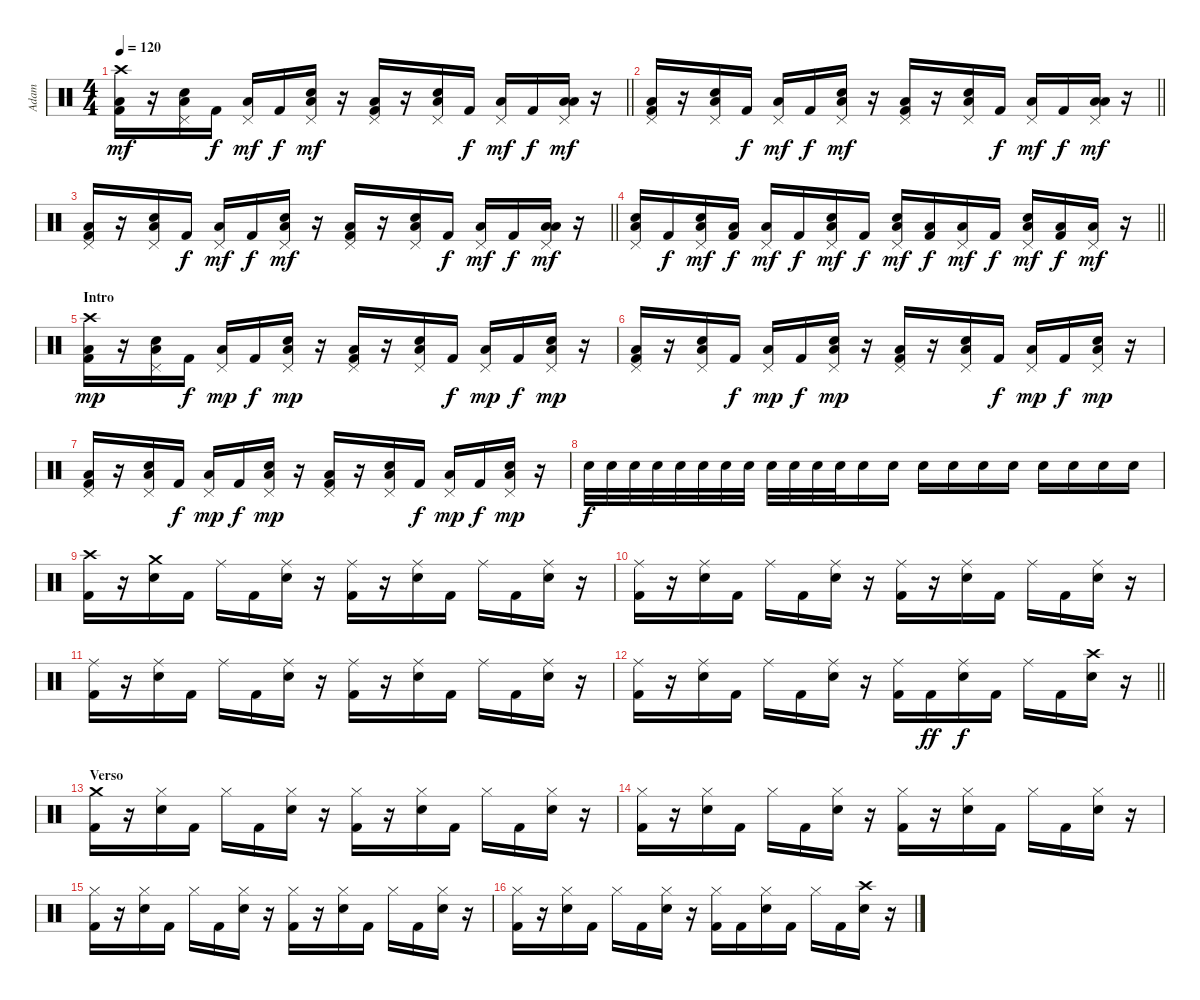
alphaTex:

\track ("Adam" "Adam") {instrument percussion}
\staff {score}
\articulation defaults
\ts (4 4)
\tempo 120
\clef neutral
\barLineRight lightlight
\ks c
("Crash high (hit)" "Low Floor Tom (hit)" "Kick (hit) 2").16{dy mf} r.16 ("Pedal Hi-Hat (hit)" "Low Floor Tom (hit)" "Snare (hit) 2").16 "Kick (hit) 2".16{dy f} ("Pedal Hi-Hat (hit)" "Low Floor Tom (hit)").16{dy mf} "Kick (hit) 2".16{dy f} ("Pedal Hi-Hat (hit)" "Low Floor Tom (hit)" "Snare (hit) 2").16{dy mf} r.16 ("Pedal Hi-Hat (hit)" "Low Floor Tom (hit)" "Kick (hit) 2").16 r.16 ("Pedal Hi-Hat (hit)" "Low Floor Tom (hit)" "Snare (hit) 2").16 "Kick (hit) 2".16{dy f} ("Pedal Hi-Hat (hit)" "Low Floor Tom (hit)").16{dy mf} "Kick (hit) 2".16{dy f} ("Pedal Hi-Hat (hit)" "Low Floor Tom (hit)" "Low Tom (hit)").16{dy mf} r.16 |
\barLineRight lightlight
("Pedal Hi-Hat (hit)" "Low Floor Tom (hit)" "Kick (hit) 2").16 r.16 ("Pedal Hi-Hat (hit)" "Low Floor Tom (hit)" "Snare (hit) 2").16 "Kick (hit) 2".16{dy f} ("Pedal Hi-Hat (hit)" "Low Floor Tom (hit)").16{dy mf} "Kick (hit) 2".16{dy f} ("Pedal Hi-Hat (hit)" "Low Floor Tom (hit)" "Snare (hit) 2").16{dy mf} r.16 ("Pedal Hi-Hat (hit)" "Low Floor Tom (hit)" "Kick (hit) 2").16 r.16 ("Pedal Hi-Hat (hit)" "Low Floor Tom (hit)" "Snare (hit) 2").16 "Kick (hit) 2".16{dy f} ("Pedal Hi-Hat (hit)" "Low Floor Tom (hit)").16{dy mf} "Kick (hit) 2".16{dy f} ("Pedal Hi-Hat (hit)" "Low Floor Tom (hit)" "Low Tom (hit)").16{dy mf} r.16 |
\barLineRight lightlight
("Pedal Hi-Hat (hit)" "Low Floor Tom (hit)" "Kick (hit) 2").16 r.16 ("Pedal Hi-Hat (hit)" "Low Floor Tom (hit)" "Snare (hit) 2").16 "Kick (hit) 2".16{dy f} ("Pedal Hi-Hat (hit)" "Low Floor Tom (hit)").16{dy mf} "Kick (hit) 2".16{dy f} ("Pedal Hi-Hat (hit)" "Low Floor Tom (hit)" "Snare (hit) 2").16{dy mf} r.16 ("Pedal Hi-Hat (hit)" "Low Floor Tom (hit)" "Kick (hit) 2").16 r.16 ("Pedal Hi-Hat (hit)" "Low Floor Tom (hit)" "Snare (hit) 2").16 "Kick (hit) 2".16{dy f} ("Pedal Hi-Hat (hit)" "Low Floor Tom (hit)").16{dy mf} "Kick (hit) 2".16{dy f} ("Pedal Hi-Hat (hit)" "Low Floor Tom (hit)" "Low Tom (hit)").16{dy mf} r.16 |
\barLineRight lightlight
("Pedal Hi-Hat (hit)" "Low Floor Tom (hit)" "Snare (hit) 2").16 "Kick (hit) 2".16{dy f} ("Pedal Hi-Hat (hit)" "Low Floor Tom (hit)" "Snare (hit) 2").16{dy mf} ("Low Tom (hit)" "Kick (hit) 2").16{dy f} ("Pedal Hi-Hat (hit)" "Low Tom (hit)").16{dy mf} "Kick (hit) 2".16{dy f} ("Pedal Hi-Hat (hit)" "Low Floor Tom (hit)" "Snare (hit) 2").16{dy mf} "Kick (hit) 2".16{dy f} ("Pedal Hi-Hat (hit)" "Low Floor Tom (hit)" "Snare (hit) 2").16{dy mf} ("Low Tom (hit)" "Kick (hit) 2").16{dy f} ("Pedal Hi-Hat (hit)" "Low Tom (hit)").16{dy mf} "Kick (hit) 2".16{dy f} ("Pedal Hi-Hat (hit)" "Low Floor Tom (hit)" "Snare (hit) 2").16{dy mf} ("Low Tom (hit)" "Kick (hit) 2").16{dy f} ("Pedal Hi-Hat (hit)" "Low Tom (hit)").16{dy mf} r.16 |
\section ("" "Intro")
("Crash high (hit)" "Low Floor Tom (hit)" "Kick (hit) 2").16{dy mp} r.16 ("Pedal Hi-Hat (hit)" "Low Floor Tom (hit)" "Snare (hit) 2").16 "Kick (hit) 2".16{dy f} ("Pedal Hi-Hat (hit)" "Low Floor Tom (hit)").16{dy mp} "Kick (hit) 2".16{dy f} ("Pedal Hi-Hat (hit)" "Low Floor Tom (hit)" "Snare (hit) 2").16{dy mp} r.16 ("Pedal Hi-Hat (hit)" "Low Floor Tom (hit)" "Kick (hit) 2").16 r.16 ("Pedal Hi-Hat (hit)" "Low Floor Tom (hit)" "Snare (hit) 2").16 "Kick (hit) 2".16{dy f} ("Pedal Hi-Hat (hit)" "Low Floor Tom (hit)").16{dy mp} "Kick (hit) 2".16{dy f} ("Pedal Hi-Hat (hit)" "Low Floor Tom (hit)" "Snare (hit) 2").16{dy mp} r.16 |
("Pedal Hi-Hat (hit)" "Low Floor Tom (hit)" "Kick (hit) 2").16 r.16 ("Pedal Hi-Hat (hit)" "Low Floor Tom (hit)" "Snare (hit) 2").16 "Kick (hit) 2".16{dy f} ("Pedal Hi-Hat (hit)" "Low Floor Tom (hit)").16{dy mp} "Kick (hit) 2".16{dy f} ("Pedal Hi-Hat (hit)" "Low Floor Tom (hit)" "Snare (hit) 2").16{dy mp} r.16 ("Pedal Hi-Hat (hit)" "Low Floor Tom (hit)" "Kick (hit) 2").16 r.16 ("Pedal Hi-Hat (hit)" "Low Floor Tom (hit)" "Snare (hit) 2").16 "Kick (hit) 2".16{dy f} ("Pedal Hi-Hat (hit)" "Low Floor Tom (hit)").16{dy mp} "Kick (hit) 2".16{dy f} ("Pedal Hi-Hat (hit)" "Low Floor Tom (hit)" "Snare (hit) 2").16{dy mp} r.16 |
("Pedal Hi-Hat (hit)" "Low Floor Tom (hit)" "Kick (hit) 2").16 r.16 ("Pedal Hi-Hat (hit)" "Low Floor Tom (hit)" "Snare (hit) 2").16 "Kick (hit) 2".16{dy f} ("Pedal Hi-Hat (hit)" "Low Floor Tom (hit)").16{dy mp} "Kick (hit) 2".16{dy f} ("Pedal Hi-Hat (hit)" "Low Floor Tom (hit)" "Snare (hit) 2").16{dy mp} r.16 ("Pedal Hi-Hat (hit)" "Low Floor Tom (hit)" "Kick (hit) 2").16 r.16 ("Pedal Hi-Hat (hit)" "Low Floor Tom (hit)" "Snare (hit) 2").16 "Kick (hit) 2".16{dy f} ("Pedal Hi-Hat (hit)" "Low Floor Tom (hit)").16{dy mp} "Kick (hit) 2".16{dy f} ("Pedal Hi-Hat (hit)" "Low Floor Tom (hit)" "Snare (hit) 2").16{dy mp} r.16 |
"Snare (hit) 2".32{dy f} "Snare (hit) 2".32 "Snare (hit) 2".32 "Snare (hit) 2".32 "Snare (hit) 2".32 "Snare (hit) 2".32 "Snare (hit) 2".32 "Snare (hit) 2".32 "Snare (hit) 2".32 "Snare (hit) 2".32 "Snare (hit) 2".32 "Snare (hit) 2".32 "Snare (hit) 2".16 "Snare (hit) 2".16 "Snare (hit) 2".16 "Snare (hit) 2".16 "Snare (hit) 2".16 "Snare (hit) 2".16 "Snare (hit) 2".16 "Snare (hit) 2".16 "Snare (hit) 2".16 "Snare (hit) 2".16 |
("Crash high (hit)" "Kick (hit) 2").16 r.16 ("Crash medium (hit)" "Snare (hit) 2").16 "Kick (hit) 2".16 "Ride (middle)".16 "Kick (hit) 2".16 ("Ride (middle)" "Snare (hit) 2").16 r.16 ("Ride (middle)" "Kick (hit) 2").16 r.16 ("Ride (middle)" "Snare (hit) 2").16 "Kick (hit) 2".16 "Ride (middle)".16 "Kick (hit) 2".16 ("Ride (middle)" "Snare (hit) 2").16 r.16 |
("Ride (middle)" "Kick (hit) 2").16 r.16 ("Ride (middle)" "Snare (hit) 2").16 "Kick (hit) 2".16 "Ride (middle)".16 "Kick (hit) 2".16 ("Ride (middle)" "Snare (hit) 2").16 r.16 ("Ride (middle)" "Kick (hit) 2").16 r.16 ("Ride (middle)" "Snare (hit) 2").16 "Kick (hit) 2".16 "Ride (middle)".16 "Kick (hit) 2".16 ("Ride (middle)" "Snare (hit) 2").16 r.16 |
("Ride (middle)" "Kick (hit) 2").16 r.16 ("Ride (middle)" "Snare (hit) 2").16 "Kick (hit) 2".16 "Ride (middle)".16 "Kick (hit) 2".16 ("Ride (middle)" "Snare (hit) 2").16 r.16 ("Ride (middle)" "Kick (hit) 2").16 r.16 ("Ride (middle)" "Snare (hit) 2").16 "Kick (hit) 2".16 "Ride (middle)".16 "Kick (hit) 2".16 ("Ride (middle)" "Snare (hit) 2").16 r.16 |
\barLineRight lightlight
("Ride (middle)" "Kick (hit) 2").16 r.16 ("Ride (middle)" "Snare (hit) 2").16 "Kick (hit) 2".16 "Ride (middle)".16 "Kick (hit) 2".16 ("Ride (middle)" "Snare (hit) 2").16 r.16 ("Ride (middle)" "Kick (hit) 2").16 "Kick (hit) 2".16{dy ff} ("Ride (middle)" "Snare (hit) 2").16{dy f} "Kick (hit) 2".16 "Ride (middle)".16 "Kick (hit) 2".16 ("Crash high (hit)" "Snare (hit) 2").16 r.16 |
\section ("" "Verso")
("Crash medium (hit)" "Kick (hit) 2").16 r.16 ("Hi-Hat (closed)" "Snare (hit) 2").16 "Kick (hit) 2".16 "Hi-Hat (closed)".16 "Kick (hit) 2".16 ("Hi-Hat (closed)" "Snare (hit) 2").16 r.16 ("Hi-Hat (closed)" "Kick (hit) 2").16 r.16 ("Hi-Hat (closed)" "Snare (hit) 2").16 "Kick (hit) 2".16 "Hi-Hat (closed)".16 "Kick (hit) 2".16 ("Hi-Hat (closed)" "Snare (hit) 2").16 r.16 |
("Hi-Hat (closed)" "Kick (hit) 2").16 r.16 ("Hi-Hat (closed)" "Snare (hit) 2").16 "Kick (hit) 2".16 "Hi-Hat (closed)".16 "Kick (hit) 2".16 ("Hi-Hat (closed)" "Snare (hit) 2").16 r.16 ("Hi-Hat (closed)" "Kick (hit) 2").16 r.16 ("Hi-Hat (closed)" "Snare (hit) 2").16 "Kick (hit) 2".16 "Hi-Hat (closed)".16 "Kick (hit) 2".16 ("Hi-Hat (closed)" "Snare (hit) 2").16 r.16 |
("Hi-Hat (closed)" "Kick (hit) 2").16 r.16 ("Hi-Hat (closed)" "Snare (hit) 2").16 "Kick (hit) 2".16 "Hi-Hat (closed)".16 "Kick (hit) 2".16 ("Hi-Hat (closed)" "Snare (hit) 2").16 r.16 ("Hi-Hat (closed)" "Kick (hit) 2").16 r.16 ("Hi-Hat (closed)" "Snare (hit) 2").16 "Kick (hit) 2".16 "Hi-Hat (closed)".16 "Kick (hit) 2".16 ("Hi-Hat (closed)" "Snare (hit) 2").16 r.16 |
("Hi-Hat (closed)" "Kick (hit) 2").16 r.16 ("Hi-Hat (closed)" "Snare (hit) 2").16 "Kick (hit) 2".16 "Hi-Hat (closed)".16 "Kick (hit) 2".16 ("Hi-Hat (closed)" "Snare (hit) 2").16 r.16 ("Hi-Hat (closed)" "Kick (hit) 2").16 "Kick (hit) 2".16 ("Hi-Hat (closed)" "Snare (hit) 2").16 "Kick (hit) 2".16 "Hi-Hat (closed)".16 "Kick (hit) 2".16 ("Crash high (hit)" "Snare (hit) 2").16 r.16
